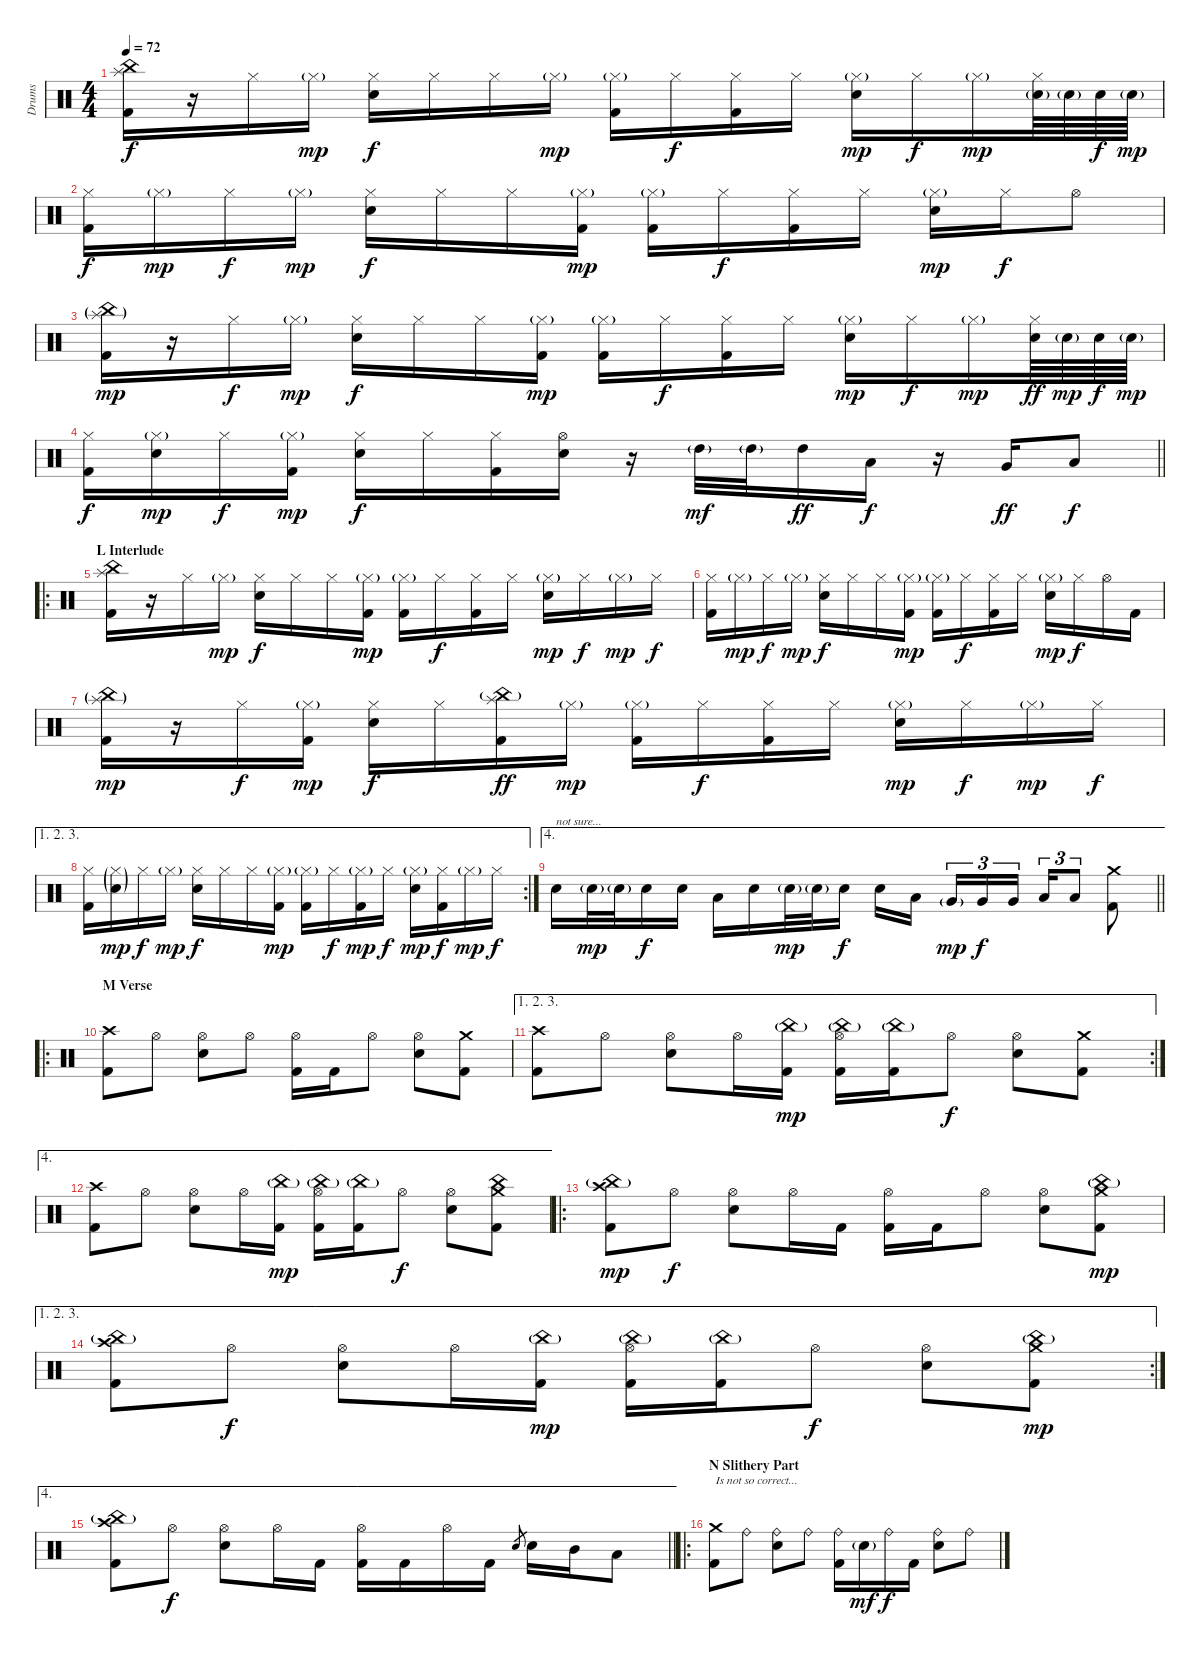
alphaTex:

\track ("Drums" "Drums") {instrument percussion}
\staff {score}
\articulation defaults
\ts (4 4)
\tempo 72
\clef neutral
\ks c
("Splash (hit)" "China (hit)" "Kick (hit) 2").16{dy f} r.16 "Hi-Hat (closed)".16 "Hi-Hat (closed)"{g}.16{dy mp} ("Hi-Hat (closed)" "Electric Snare (hit)").16{dy f} "Hi-Hat (closed)".16 "Hi-Hat (closed)".16 "Hi-Hat (closed)"{g}.16{dy mp} ("Hi-Hat (closed)"{g} "Kick (hit) 2").16 "Hi-Hat (closed)".16{dy f} ("Hi-Hat (closed)" "Kick (hit) 2").16 "Hi-Hat (closed)".16 ("Hi-Hat (closed)"{g} "Electric Snare (hit)").16{dy mp} "Hi-Hat (closed)".16{dy f} "Hi-Hat (closed)"{g}.16{dy mp} ("Hi-Hat (closed)" "Electric Snare (hit)"{g}).64 "Electric Snare (hit)"{g}.64 "Electric Snare (hit)".64{dy f} "Electric Snare (hit)"{g}.64{dy mp} |
("Hi-Hat (closed)" "Kick (hit) 2").16{dy f} "Hi-Hat (closed)"{g}.16{dy mp} "Hi-Hat (closed)".16{dy f} "Hi-Hat (closed)"{g}.16{dy mp} ("Hi-Hat (closed)" "Electric Snare (hit)").16{dy f} "Hi-Hat (closed)".16 "Hi-Hat (closed)".16 ("Hi-Hat (closed)"{g} "Kick (hit) 2").16{dy mp} ("Hi-Hat (closed)"{g} "Kick (hit) 2").16 "Hi-Hat (closed)".16{dy f} ("Hi-Hat (closed)" "Kick (hit) 2").16 "Hi-Hat (closed)".16 ("Hi-Hat (closed)"{g} "Electric Snare (hit)").16{dy mp} "Hi-Hat (closed)".16{dy f} "Hi-Hat (open)".8 |
("Splash (hit)"{g} "China (hit)"{g} "Kick (hit) 2").16{dy mp} r.16 "Hi-Hat (closed)".16{dy f} "Hi-Hat (closed)"{g}.16{dy mp} ("Hi-Hat (closed)" "Electric Snare (hit)").16{dy f} "Hi-Hat (closed)".16 "Hi-Hat (closed)".16 ("Hi-Hat (closed)"{g} "Kick (hit) 2").16{dy mp} ("Hi-Hat (closed)"{g} "Kick (hit) 2").16 "Hi-Hat (closed)".16{dy f} ("Hi-Hat (closed)" "Kick (hit) 2").16 "Hi-Hat (closed)".16 ("Hi-Hat (closed)"{g} "Electric Snare (hit)").16{dy mp} "Hi-Hat (closed)".16{dy f} "Hi-Hat (closed)"{g}.16{dy mp} ("Hi-Hat (closed)" "Electric Snare (hit)").64{dy ff} "Electric Snare (hit)"{g}.64{dy mp} "Electric Snare (hit)".64{dy f} "Electric Snare (hit)"{g}.64{dy mp} |
\barLineRight lightlight
("Hi-Hat (closed)" "Kick (hit) 2").16{dy f} ("Hi-Hat (closed)"{g} "Electric Snare (hit)").16{dy mp} "Hi-Hat (closed)".16{dy f} ("Hi-Hat (closed)"{g} "Kick (hit) 2").16{dy mp} ("Hi-Hat (closed)" "Electric Snare (hit)").16{dy f} "Hi-Hat (closed)".16 ("Hi-Hat (closed)" "Kick (hit) 2").16 ("Hi-Hat (open)" "Electric Snare (hit)").16 r.16 "High Tom (hit)"{g}.32{dy mf} "High Tom (hit)"{g}.32 "High Tom (hit)".16{dy ff} "Low Tom (hit)".16{dy f} r.16 "Very Low Tom (hit)".16{dy ff} "Low Floor Tom (hit)".8{dy f} |
\ro
\section ("" "L Interlude")
("Splash (hit)" "China (hit)" "Kick (hit) 2").16 r.16 "Hi-Hat (closed)".16 "Hi-Hat (closed)"{g}.16{dy mp} ("Hi-Hat (closed)" "Electric Snare (hit)").16{dy f} "Hi-Hat (closed)".16 "Hi-Hat (closed)".16 ("Hi-Hat (closed)"{g} "Kick (hit) 2").16{dy mp} ("Hi-Hat (closed)"{g} "Kick (hit) 2").16 "Hi-Hat (closed)".16{dy f} ("Hi-Hat (closed)" "Kick (hit) 2").16 "Hi-Hat (closed)".16 ("Hi-Hat (closed)"{g} "Electric Snare (hit)").16{dy mp} "Hi-Hat (closed)".16{dy f} "Hi-Hat (closed)"{g}.16{dy mp} "Hi-Hat (closed)".16{dy f} |
("Hi-Hat (closed)" "Kick (hit) 2").16 "Hi-Hat (closed)"{g}.16{dy mp} "Hi-Hat (closed)".16{dy f} "Hi-Hat (closed)"{g}.16{dy mp} ("Hi-Hat (closed)" "Electric Snare (hit)").16{dy f} "Hi-Hat (closed)".16 "Hi-Hat (closed)".16 ("Hi-Hat (closed)"{g} "Kick (hit) 2").16{dy mp} ("Hi-Hat (closed)"{g} "Kick (hit) 2").16 "Hi-Hat (closed)".16{dy f} ("Hi-Hat (closed)" "Kick (hit) 2").16 "Hi-Hat (closed)".16 ("Hi-Hat (closed)"{g} "Electric Snare (hit)").16{dy mp} "Hi-Hat (closed)".16{dy f} "Hi-Hat (open)".16 "Kick (hit) 2".16 |
("Splash (hit)"{g} "China (hit)"{g} "Kick (hit) 2").16{dy mp} r.16 "Hi-Hat (closed)".16{dy f} ("Hi-Hat (closed)"{g} "Kick (hit) 2").16{dy mp} ("Hi-Hat (closed)" "Electric Snare (hit)").16{dy f} "Hi-Hat (closed)".16 ("China (hit)"{g} "Splash (hit)" "Kick (hit) 2").16{dy ff} "Hi-Hat (closed)"{g}.16{dy mp} ("Hi-Hat (closed)"{g} "Kick (hit) 2").16 "Hi-Hat (closed)".16{dy f} ("Hi-Hat (closed)" "Kick (hit) 2").16 "Hi-Hat (closed)".16 ("Hi-Hat (closed)"{g} "Electric Snare (hit)").16{dy mp} "Hi-Hat (closed)".16{dy f} "Hi-Hat (closed)"{g}.16{dy mp} "Hi-Hat (closed)".16{dy f} |
\ae (1 2 3)
\rc 2
("Hi-Hat (closed)" "Kick (hit) 2").16 ("Hi-Hat (closed)"{g} "Electric Snare (hit)"{g}).16{dy mp} "Hi-Hat (closed)".16{dy f} "Hi-Hat (closed)"{g}.16{dy mp} ("Hi-Hat (closed)" "Electric Snare (hit)").16{dy f} "Hi-Hat (closed)".16 "Hi-Hat (closed)".16 ("Hi-Hat (closed)"{g} "Kick (hit) 2").16{dy mp} ("Hi-Hat (closed)"{g} "Kick (hit) 2").16 "Hi-Hat (closed)".16{dy f} ("Hi-Hat (closed)"{g} "Kick (hit) 2").16{dy mp} "Hi-Hat (closed)".16{dy f} ("Hi-Hat (closed)"{g} "Electric Snare (hit)").16{dy mp} ("Hi-Hat (closed)" "Kick (hit) 2").16{dy f} "Hi-Hat (closed)"{g}.16{dy mp} "Hi-Hat (closed)".16{dy f} |
\ae 4
\barLineRight lightlight "Electric Snare (hit)".16{txt "not sure..."} "Electric Snare (hit)"{g}.32{dy mp} "Electric Snare (hit)"{g}.32 "Electric Snare (hit)".16{dy f} "Electric Snare (hit)".16 "Low Tom (hit)".16 "Electric Snare (hit)".16 "Electric Snare (hit)"{g}.32{dy mp} "Electric Snare (hit)"{g}.32 "Electric Snare (hit)".16{dy f} "Electric Snare (hit)".16 "Low Tom (hit)".16{beam splitsecondary} "Very Low Tom (hit)"{g}.16{tu (3 2) dy mp} "Very Low Tom (hit)".16{tu (3 2) dy f} "Very Low Tom (hit)".16{tu (3 2)} "Low Floor Tom (hit)".16{tu (3 2)} "Low Floor Tom (hit)".8{tu (3 2)}
("Crash medium (hit)" "Kick (hit) 2").8 |
\ro
\section ("" "M Verse")
("Crash high (hit)" "Kick (hit) 2").8 "Hi-Hat (open)".8 ("Hi-Hat (open)" "Electric Snare (hit)").8 "Hi-Hat (open)".8 ("Hi-Hat (open)" "Kick (hit) 2").16 "Kick (hit) 2".16 "Hi-Hat (open)".8 ("Hi-Hat (open)" "Electric Snare (hit)").8 ("Crash medium (hit)" "Kick (hit) 2").8 |
\ae (1 2 3)
\rc 2
("Crash high (hit)" "Kick (hit) 2").8 "Hi-Hat (open)".8 ("Hi-Hat (open)" "Electric Snare (hit)").8 "Hi-Hat (open)".16 ("China (hit)"{g} "Kick (hit) 2").16{dy mp} ("China (hit)"{g} "Hi-Hat (open)" "Kick (hit) 2").16 ("China (hit)"{g} "Kick (hit) 2").16 "Hi-Hat (open)".8{dy f} ("Hi-Hat (open)" "Electric Snare (hit)").8 ("Crash medium (hit)" "Kick (hit) 2").8 |
\ae 4
("Crash high (hit)" "Kick (hit) 2").8 "Hi-Hat (open)".8 ("Hi-Hat (open)" "Electric Snare (hit)").8 "Hi-Hat (open)".16 ("China (hit)"{g} "Kick (hit) 2").16{dy mp} ("China (hit)"{g} "Hi-Hat (open)" "Kick (hit) 2").16 ("China (hit)"{g} "Kick (hit) 2").16 "Hi-Hat (open)".8{dy f} ("Hi-Hat (open)" "Electric Snare (hit)").8 ("Crash medium (hit)" "China (hit)" "Kick (hit) 2").8 |
\ro
("Crash high (hit)" "China (hit)"{g} "Kick (hit) 2").8{dy mp} "Hi-Hat (open)".8{dy f} ("Hi-Hat (open)" "Electric Snare (hit)").8 "Hi-Hat (open)".16 "Kick (hit) 2".16 ("Hi-Hat (open)" "Kick (hit) 2").16 "Kick (hit) 2".16 "Hi-Hat (open)".8 ("Hi-Hat (open)" "Electric Snare (hit)").8 ("Crash medium (hit)" "China (hit)"{g} "Kick (hit) 2").8{dy mp} |
\ae (1 2 3)
\rc 2
("Crash high (hit)" "China (hit)"{g} "Kick (hit) 2").8 "Hi-Hat (open)".8{dy f} ("Hi-Hat (open)" "Electric Snare (hit)").8 "Hi-Hat (open)".16 ("China (hit)"{g} "Kick (hit) 2").16{dy mp} ("China (hit)"{g} "Hi-Hat (open)" "Kick (hit) 2").16 ("China (hit)"{g} "Kick (hit) 2").16 "Hi-Hat (open)".8{dy f} ("Hi-Hat (open)" "Electric Snare (hit)").8 ("Crash medium (hit)" "China (hit)"{g} "Kick (hit) 2").8{dy mp} |
\ae 4
\barLineRight lightlight
("Crash high (hit)" "China (hit)"{g} "Kick (hit) 2").8 "Hi-Hat (open)".8{dy f} ("Hi-Hat (open)" "Electric Snare (hit)").8 "Hi-Hat (open)".16 "Kick (hit) 2".16 ("Hi-Hat (open)" "Kick (hit) 2").16 "Kick (hit) 2".16 "Hi-Hat (open)".16 "Kick (hit) 2".16 "Electric Snare (hit)".8{gr} "Electric Snare (hit)".16 "Mid Tom (hit)".16 "Low Tom (hit)".8 |
\ro
\section ("" "N Slithery Part")
("Crash medium (hit)" "Kick (hit) 2").8{txt "Is not so correct..."} "Ride (bell)".8 ("Ride (bell)" "Electric Snare (hit)").8 "Ride (bell)".8 ("Ride (bell)" "Kick (hit) 2").16 "Electric Snare (hit)"{g}.16{dy mf} "Ride (bell)".16{dy f} "Kick (hit) 2".16 ("Ride (bell)" "Electric Snare (hit)").8 "Ride (bell)".8
